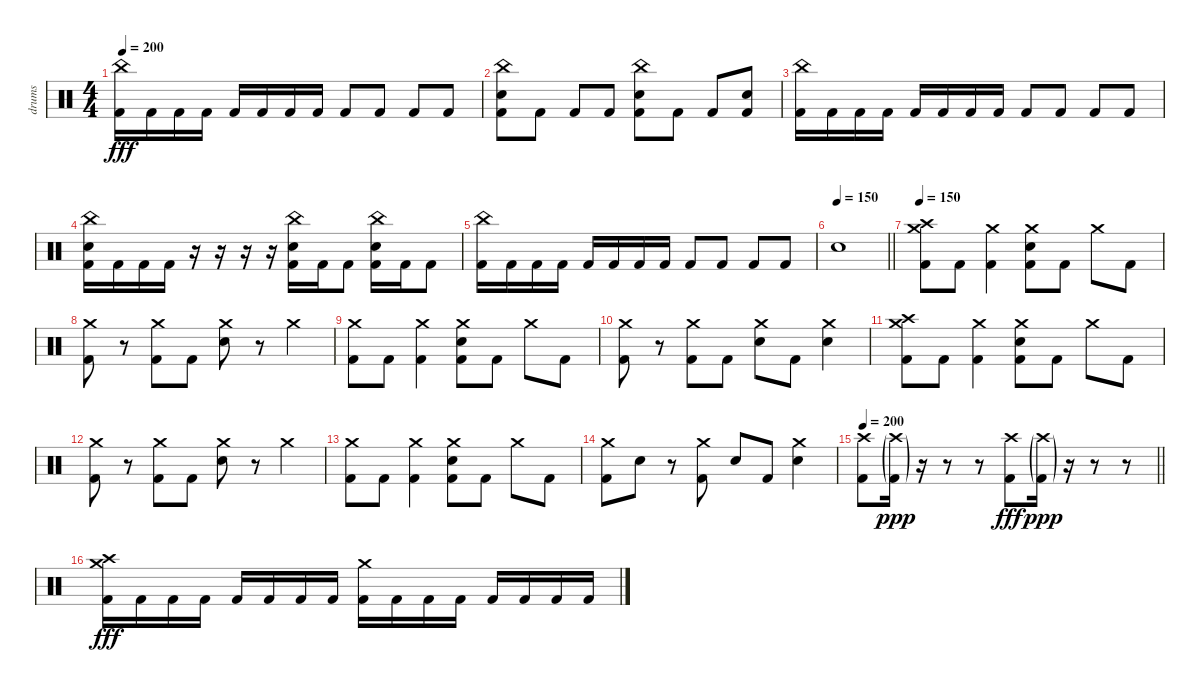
\track ("drums" "drums") {instrument percussion}
\staff {score}
\articulation defaults
\ts (4 4)
\tempo 200
\clef neutral
\ks c
("China (hit)" "Kick (hit) 2").16{dy fff} "Kick (hit) 2".16 "Kick (hit) 2".16 "Kick (hit) 2".16 "Kick (hit) 2".16 "Kick (hit) 2".16 "Kick (hit) 2".16 "Kick (hit) 2".16 "Kick (hit) 2".8 "Kick (hit) 2".8 "Kick (hit) 2".8 "Kick (hit) 2".8 |
("China (hit)" "Electric Snare (hit)" "Kick (hit) 2").8 "Kick (hit) 2".8 "Kick (hit) 2".8 "Kick (hit) 2".8 ("China (hit)" "Electric Snare (hit)" "Kick (hit) 2").8 "Kick (hit) 2".8 "Kick (hit) 2".8 ("Electric Snare (hit)" "Kick (hit) 2").8 |
("China (hit)" "Kick (hit) 2").16 "Kick (hit) 2".16 "Kick (hit) 2".16 "Kick (hit) 2".16 "Kick (hit) 2".16 "Kick (hit) 2".16 "Kick (hit) 2".16 "Kick (hit) 2".16 "Kick (hit) 2".8 "Kick (hit) 2".8 "Kick (hit) 2".8 "Kick (hit) 2".8 |
("China (hit)" "Electric Snare (hit)" "Kick (hit) 2").16 "Kick (hit) 2".16 "Kick (hit) 2".16 "Kick (hit) 2".16 r.16 r.16 r.16 r.16 ("China (hit)" "Electric Snare (hit)" "Kick (hit) 2").16 "Kick (hit) 2".16 "Kick (hit) 2".8 ("China (hit)" "Electric Snare (hit)" "Kick (hit) 2").16 "Kick (hit) 2".16 "Kick (hit) 2".8 |
("China (hit)" "Kick (hit) 2").16 "Kick (hit) 2".16 "Kick (hit) 2".16 "Kick (hit) 2".16 "Kick (hit) 2".16 "Kick (hit) 2".16 "Kick (hit) 2".16 "Kick (hit) 2".16 "Kick (hit) 2".8 "Kick (hit) 2".8 "Kick (hit) 2".8 "Kick (hit) 2".8 |
\tempo 150
\barLineRight lightlight "Electric Snare (hit)".1
|
\section ("" "")
\tempo 150
("Crash high (hit)" "Crash medium (hit)" "Kick (hit) 2").8 "Kick (hit) 2".8 ("Crash medium (hit)" "Kick (hit) 2").4 ("Crash medium (hit)" "Electric Snare (hit)" "Kick (hit) 2").8 "Kick (hit) 2".8 "Crash medium (hit)".8 "Kick (hit) 2".8 |
("Crash medium (hit)" "Kick (hit) 2").8 r.8 ("Crash medium (hit)" "Kick (hit) 2").8 "Kick (hit) 2".8 ("Crash medium (hit)" "Electric Snare (hit)").8 r.8 "Crash medium (hit)".4 |
("Crash medium (hit)" "Kick (hit) 2").8 "Kick (hit) 2".8 ("Crash medium (hit)" "Kick (hit) 2").4 ("Crash medium (hit)" "Electric Snare (hit)" "Kick (hit) 2").8 "Kick (hit) 2".8 "Crash medium (hit)".8 "Kick (hit) 2".8 |
("Crash medium (hit)" "Kick (hit) 2").8 r.8 ("Crash medium (hit)" "Kick (hit) 2").8 "Kick (hit) 2".8 ("Crash medium (hit)" "Electric Snare (hit)").8 "Kick (hit) 2".8 ("Crash medium (hit)" "Electric Snare (hit)").4 |
("Crash high (hit)" "Crash medium (hit)" "Kick (hit) 2").8 "Kick (hit) 2".8 ("Crash medium (hit)" "Kick (hit) 2").4 ("Crash medium (hit)" "Electric Snare (hit)" "Kick (hit) 2").8 "Kick (hit) 2".8 "Crash medium (hit)".8 "Kick (hit) 2".8 |
("Crash medium (hit)" "Kick (hit) 2").8 r.8 ("Crash medium (hit)" "Kick (hit) 2").8 "Kick (hit) 2".8 ("Crash medium (hit)" "Electric Snare (hit)").8 r.8 "Crash medium (hit)".4 |
("Crash medium (hit)" "Kick (hit) 2").8 "Kick (hit) 2".8 ("Crash medium (hit)" "Kick (hit) 2").4 ("Crash medium (hit)" "Electric Snare (hit)" "Kick (hit) 2").8 "Kick (hit) 2".8 "Crash medium (hit)".8 "Kick (hit) 2".8 |
("Crash medium (hit)" "Kick (hit) 2").8 "Electric Snare (hit)".8 r.8 ("Crash medium (hit)" "Kick (hit) 2").8 "Electric Snare (hit)".8 "Kick (hit) 2".8 ("Crash medium (hit)" "Electric Snare (hit)").4 |
\tempo 200
\barLineRight lightlight
("Crash high (hit)" "Kick (hit) 2").8 ("Crash high (hit)"{g} "Kick (hit) 2"{g}).16{dy ppp} r.16 r.8 r.8 ("Crash high (hit)" "Kick (hit) 2").8{dy fff} ("Crash high (hit)"{g} "Kick (hit) 2"{g}).16{dy ppp} r.16 r.8 r.8 |
\section ("" "")
("Crash high (hit)" "Crash medium (hit)" "Kick (hit) 2").16{dy fff} "Kick (hit) 2".16 "Kick (hit) 2".16 "Kick (hit) 2".16 "Kick (hit) 2".16 "Kick (hit) 2".16 "Kick (hit) 2".16 "Kick (hit) 2".16 ("Crash medium (hit)" "Kick (hit) 2").16 "Kick (hit) 2".16 "Kick (hit) 2".16 "Kick (hit) 2".16 "Kick (hit) 2".16 "Kick (hit) 2".16 "Kick (hit) 2".16 "Kick (hit) 2".16
